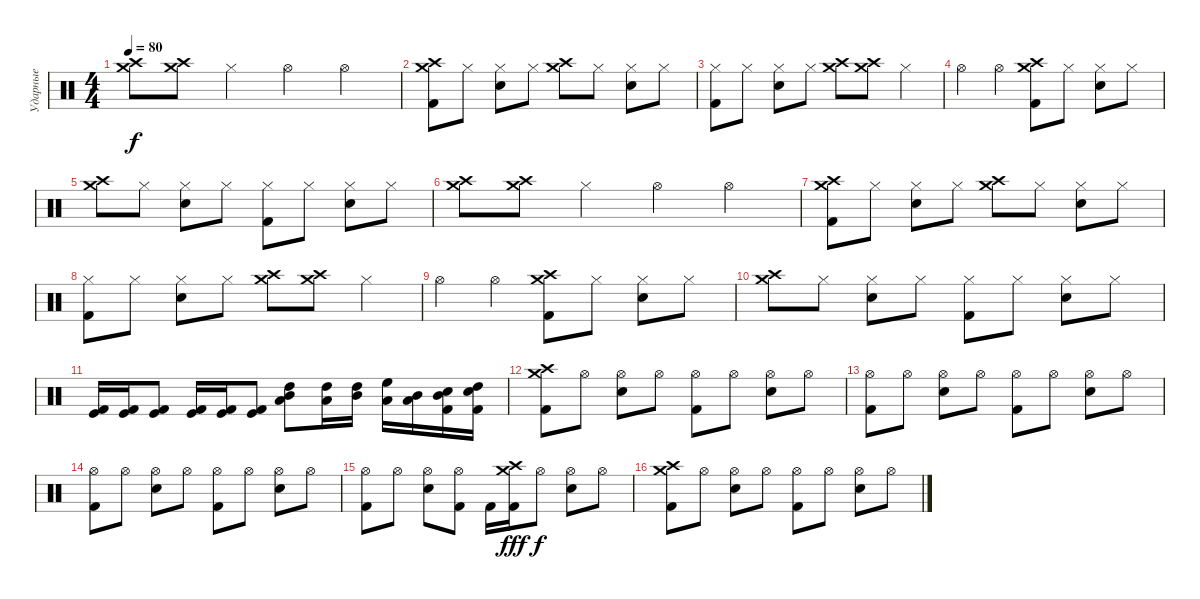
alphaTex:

\track ("Ударные" "Ударные") {instrument percussion}
\staff {score}
\articulation defaults
\ts (4 4)
\tempo 80
\clef neutral
\ks c
("Crash high (hit)" "Crash medium (hit)").8{dy f} ("Crash high (hit)" "Crash medium (hit)").8 "Hi-Hat (closed)".4 "Hi-Hat (open)".4 "Hi-Hat (open)".4 |
("Crash high (hit)" "Crash medium (hit)" "Kick (hit) 2").8 "Hi-Hat (closed)".8 ("Hi-Hat (closed)" "Snare (hit) 2").8 "Hi-Hat (closed)".8 ("Crash high (hit)" "Crash medium (hit)").8 "Hi-Hat (closed)".8 ("Hi-Hat (closed)" "Snare (hit) 2").8 "Hi-Hat (closed)".8 |
("Hi-Hat (closed)" "Kick (hit) 2").8 "Hi-Hat (closed)".8 ("Hi-Hat (closed)" "Snare (hit) 2").8 "Hi-Hat (closed)".8 ("Crash high (hit)" "Crash medium (hit)").8 ("Crash high (hit)" "Crash medium (hit)").8 "Hi-Hat (closed)".4 |
"Hi-Hat (open)".4 "Hi-Hat (open)".4 ("Crash high (hit)" "Crash medium (hit)" "Kick (hit) 2").8 "Hi-Hat (closed)".8 ("Hi-Hat (closed)" "Snare (hit) 2").8 "Hi-Hat (closed)".8 |
("Crash high (hit)" "Crash medium (hit)").8 "Hi-Hat (closed)".8 ("Hi-Hat (closed)" "Snare (hit) 2").8 "Hi-Hat (closed)".8 ("Hi-Hat (closed)" "Kick (hit) 2").8 "Hi-Hat (closed)".8 ("Hi-Hat (closed)" "Snare (hit) 2").8 "Hi-Hat (closed)".8 |
("Crash high (hit)" "Crash medium (hit)").8 ("Crash high (hit)" "Crash medium (hit)").8 "Hi-Hat (closed)".4 "Hi-Hat (open)".4 "Hi-Hat (open)".4 |
("Crash high (hit)" "Crash medium (hit)" "Kick (hit) 2").8 "Hi-Hat (closed)".8 ("Hi-Hat (closed)" "Snare (hit) 2").8 "Hi-Hat (closed)".8 ("Crash high (hit)" "Crash medium (hit)").8 "Hi-Hat (closed)".8 ("Hi-Hat (closed)" "Snare (hit) 2").8 "Hi-Hat (closed)".8 |
("Hi-Hat (closed)" "Kick (hit) 2").8 "Hi-Hat (closed)".8 ("Hi-Hat (closed)" "Snare (hit) 2").8 "Hi-Hat (closed)".8 ("Crash high (hit)" "Crash medium (hit)").8 ("Crash high (hit)" "Crash medium (hit)").8 "Hi-Hat (closed)".4 |
"Hi-Hat (open)".4 "Hi-Hat (open)".4 ("Crash high (hit)" "Crash medium (hit)" "Kick (hit) 2").8 "Hi-Hat (closed)".8 ("Hi-Hat (closed)" "Snare (hit) 2").8 "Hi-Hat (closed)".8 |
("Crash high (hit)" "Crash medium (hit)").8 "Hi-Hat (closed)".8 ("Hi-Hat (closed)" "Snare (hit) 2").8 "Hi-Hat (closed)".8 ("Hi-Hat (closed)" "Kick (hit) 2").8 "Hi-Hat (closed)".8 ("Hi-Hat (closed)" "Snare (hit) 2").8 "Hi-Hat (closed)".8 |
("Kick (hit)" "Kick (hit) 2").16 ("Kick (hit)" "Kick (hit) 2").16 ("Kick (hit)" "Kick (hit) 2").8 ("Kick (hit)" "Kick (hit) 2").16 ("Kick (hit)" "Kick (hit) 2").16 ("Kick (hit)" "Kick (hit) 2").8 ("Mid Tom (hit)" "Low Floor Tom (hit)" "High Tom (hit)").8 ("Low Floor Tom (hit)" "High Tom (hit)").16 ("Mid Tom (hit)" "High Tom (hit)").16 ("High Floor Tom (hit)" "Low Floor Tom (hit)").16 ("Low Tom (hit)" "Mid Tom (hit)").16 ("Mid Tom (hit)" "Snare (hit) 2" "Kick (hit) 2").16 ("High Tom (hit)" "Snare (hit) 2" "Kick (hit) 2").16 |
("Crash high (hit)" "Crash medium (hit)" "Kick (hit) 2").8 "Hi-Hat (open)".8 ("Hi-Hat (open)" "Snare (hit) 2").8 "Hi-Hat (open)".8 ("Hi-Hat (open)" "Kick (hit) 2").8 "Hi-Hat (open)".8 ("Hi-Hat (open)" "Snare (hit) 2").8 "Hi-Hat (open)".8 |
("Hi-Hat (open)" "Kick (hit) 2").8 "Hi-Hat (open)".8 ("Hi-Hat (open)" "Snare (hit) 2").8 "Hi-Hat (open)".8 ("Hi-Hat (open)" "Kick (hit) 2").8 "Hi-Hat (open)".8 ("Hi-Hat (open)" "Snare (hit) 2").8 "Hi-Hat (open)".8 |
("Hi-Hat (open)" "Kick (hit) 2").8 "Hi-Hat (open)".8 ("Hi-Hat (open)" "Snare (hit) 2").8 "Hi-Hat (open)".8 ("Hi-Hat (open)" "Kick (hit) 2").8 "Hi-Hat (open)".8 ("Hi-Hat (open)" "Snare (hit) 2").8 "Hi-Hat (open)".8 |
("Hi-Hat (open)" "Kick (hit) 2").8 "Hi-Hat (open)".8 ("Hi-Hat (open)" "Snare (hit) 2").8 ("Hi-Hat (open)" "Kick (hit) 2").8 "Kick (hit) 2".16 ("Crash medium (hit)" "Crash high (hit)" "Kick (hit) 2").16{dy fff} "Hi-Hat (open)".8{dy f} ("Hi-Hat (open)" "Snare (hit) 2").8 "Hi-Hat (open)".8 |
("Crash high (hit)" "Crash medium (hit)" "Kick (hit) 2").8 "Hi-Hat (open)".8 ("Hi-Hat (open)" "Snare (hit) 2").8 "Hi-Hat (open)".8 ("Hi-Hat (open)" "Kick (hit) 2").8 "Hi-Hat (open)".8 ("Hi-Hat (open)" "Snare (hit) 2").8 "Hi-Hat (open)".8
